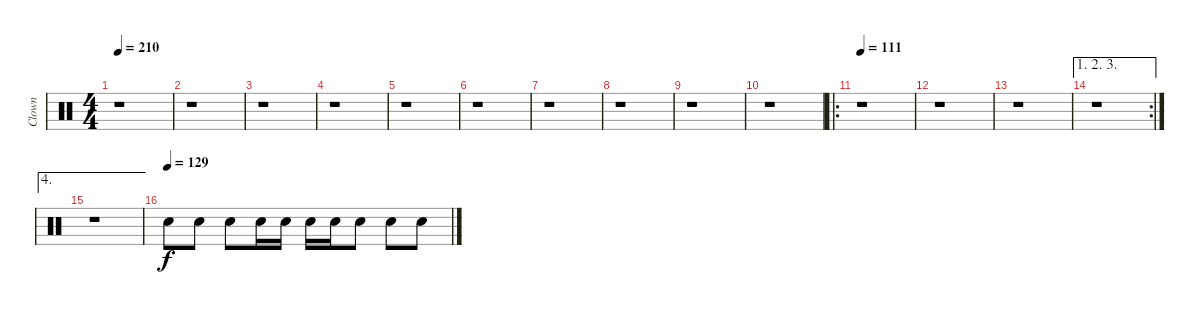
\track ("Clown" "Clown") {instrument percussion}
\staff {score}
\articulation defaults
\ts (4 4)
\tempo 210
\clef neutral
\ks c
r.1{dy f} |
r.1 |
r.1 |
r.1 |
r.1 |
r.1 |
r.1 |
r.1 |
r.1 |
r.1 |
\ro
\tempo 111
r.1 |
r.1 |
r.1 |
\ae (1 2 3)
\rc 2
r.1 |
\ae 4
r.1 |
\tempo (129)
"Snare (hit) 2".8 "Snare (hit) 2".8 "Snare (hit) 2".8 "Snare (hit) 2".16 "Snare (hit) 2".16 "Snare (hit) 2".16 "Snare (hit) 2".16 "Snare (hit) 2".8 "Snare (hit) 2".8 "Snare (hit) 2".8
